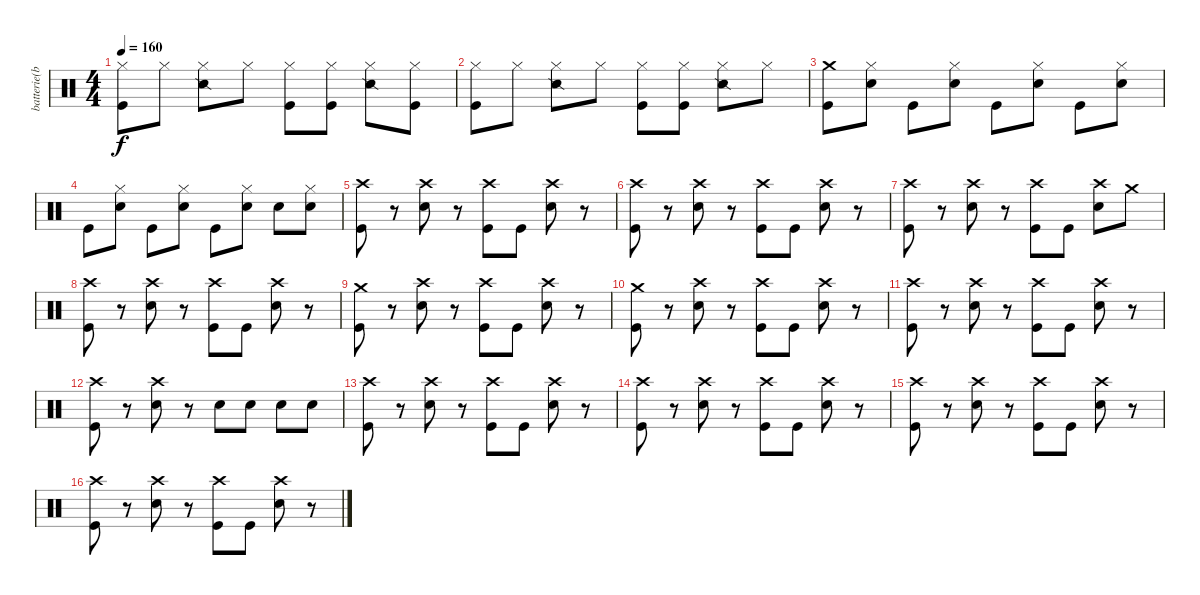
\track ("batterie(brett)" "batterie(b") {instrument percussion}
\staff {score}
\articulation defaults
\ts (4 4)
\tempo 160
\clef neutral
\ks c
("Hi-Hat (closed)" "Kick (hit)").8{dy f} "Hi-Hat (closed)".8 ("Hi-Hat (closed)" "Snare (side stick) 2").8 "Hi-Hat (closed)".8 ("Hi-Hat (closed)" "Kick (hit)").8 ("Hi-Hat (closed)" "Kick (hit)").8 ("Hi-Hat (closed)" "Snare (side stick) 2").8 ("Hi-Hat (closed)" "Kick (hit)").8 |
("Hi-Hat (closed)" "Kick (hit)").8 "Hi-Hat (closed)".8 ("Hi-Hat (closed)" "Snare (side stick) 2").8 "Hi-Hat (closed)".8 ("Hi-Hat (closed)" "Kick (hit)").8 ("Hi-Hat (closed)" "Kick (hit)").8 ("Hi-Hat (closed)" "Snare (side stick) 2").8 "Hi-Hat (closed)".8 |
("Crash medium (hit)" "Kick (hit)").8 ("Hi-Hat (closed)" "Snare (hit) 2").8 "Kick (hit)".8 ("Hi-Hat (closed)" "Snare (hit) 2").8 "Kick (hit)".8 ("Hi-Hat (closed)" "Snare (hit) 2").8 "Kick (hit)".8 ("Hi-Hat (closed)" "Snare (hit) 2").8 |
"Kick (hit)".8 ("Hi-Hat (closed)" "Snare (hit) 2").8 "Kick (hit)".8 ("Hi-Hat (closed)" "Snare (hit) 2").8 "Kick (hit)".8 ("Hi-Hat (closed)" "Snare (hit) 2").8 "Snare (hit) 2".8 ("Hi-Hat (closed)" "Snare (hit) 2").8 |
("Crash high (hit)" "Kick (hit)").8 r.8 ("Crash high (hit)" "Snare (hit) 2").8 r.8 ("Crash high (hit)" "Kick (hit)").8 "Kick (hit)".8 ("Crash high (hit)" "Snare (hit) 2").8 r.8 |
("Crash high (hit)" "Kick (hit)").8 r.8 ("Crash high (hit)" "Snare (hit) 2").8 r.8 ("Crash high (hit)" "Kick (hit)").8 "Kick (hit)".8 ("Crash high (hit)" "Snare (hit) 2").8 r.8 |
("Crash high (hit)" "Kick (hit)").8 r.8 ("Crash high (hit)" "Snare (hit) 2").8 r.8 ("Crash high (hit)" "Kick (hit)").8 "Kick (hit)".8 ("Crash high (hit)" "Snare (hit) 2").8 "Crash medium (hit)".8 |
("Crash high (hit)" "Kick (hit)").8 r.8 ("Crash high (hit)" "Snare (hit) 2").8 r.8 ("Crash high (hit)" "Kick (hit)").8 "Kick (hit)".8 ("Crash high (hit)" "Snare (hit) 2").8 r.8 |
("Crash medium (hit)" "Kick (hit)").8 r.8 ("Crash high (hit)" "Snare (hit) 2").8 r.8 ("Crash high (hit)" "Kick (hit)").8 "Kick (hit)".8 ("Crash high (hit)" "Snare (hit) 2").8 r.8 |
("Crash medium (hit)" "Kick (hit)").8 r.8 ("Crash high (hit)" "Snare (hit) 2").8 r.8 ("Crash high (hit)" "Kick (hit)").8 "Kick (hit)".8 ("Crash high (hit)" "Snare (hit) 2").8 r.8 |
("Crash high (hit)" "Kick (hit)").8 r.8 ("Crash high (hit)" "Snare (hit) 2").8 r.8 ("Crash high (hit)" "Kick (hit)").8 "Kick (hit)".8 ("Crash high (hit)" "Snare (hit) 2").8 r.8 |
("Crash high (hit)" "Kick (hit)").8 r.8 ("Crash high (hit)" "Snare (hit) 2").8 r.8 "Snare (hit) 2".8 "Snare (hit) 2".8 "Snare (hit) 2".8 "Snare (hit) 2".8 |
("Crash high (hit)" "Kick (hit)").8 r.8 ("Crash high (hit)" "Snare (hit) 2").8 r.8 ("Crash high (hit)" "Kick (hit)").8 "Kick (hit)".8 ("Crash high (hit)" "Snare (hit) 2").8 r.8 |
("Crash high (hit)" "Kick (hit)").8 r.8 ("Crash high (hit)" "Snare (hit) 2").8 r.8 ("Crash high (hit)" "Kick (hit)").8 "Kick (hit)".8 ("Crash high (hit)" "Snare (hit) 2").8 r.8 |
("Crash high (hit)" "Kick (hit)").8 r.8 ("Crash high (hit)" "Snare (hit) 2").8 r.8 ("Crash high (hit)" "Kick (hit)").8 "Kick (hit)".8 ("Crash high (hit)" "Snare (hit) 2").8 r.8 |
("Crash high (hit)" "Kick (hit)").8 r.8 ("Crash high (hit)" "Snare (hit) 2").8 r.8 ("Crash high (hit)" "Kick (hit)").8 "Kick (hit)".8 ("Crash high (hit)" "Snare (hit) 2").8 r.8
